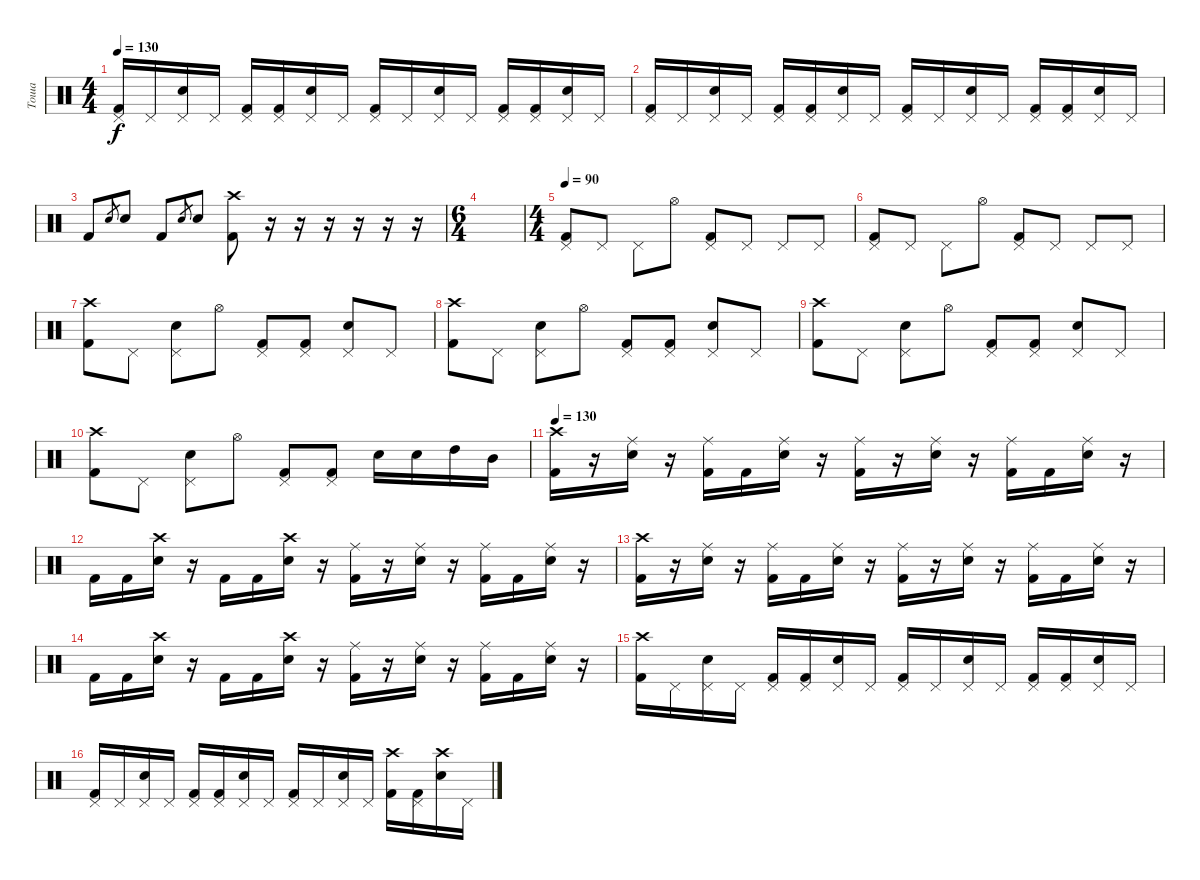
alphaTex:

\track ("Тоша" "Тоша") {solo instrument percussion}
\staff {score}
\articulation defaults
\ts (4 4)
\tempo 130
\clef neutral
\ks c
("Kick (hit) 2" "Pedal Hi-Hat (hit)").16{dy f} "Pedal Hi-Hat (hit)".16 ("Electric Snare (hit)" "Pedal Hi-Hat (hit)").16 "Pedal Hi-Hat (hit)".16 ("Kick (hit) 2" "Pedal Hi-Hat (hit)").16 ("Kick (hit) 2" "Pedal Hi-Hat (hit)").16 ("Electric Snare (hit)" "Pedal Hi-Hat (hit)").16 "Pedal Hi-Hat (hit)".16 ("Kick (hit) 2" "Pedal Hi-Hat (hit)").16 "Pedal Hi-Hat (hit)".16 ("Electric Snare (hit)" "Pedal Hi-Hat (hit)").16 "Pedal Hi-Hat (hit)".16 ("Kick (hit) 2" "Pedal Hi-Hat (hit)").16 ("Kick (hit) 2" "Pedal Hi-Hat (hit)").16 ("Electric Snare (hit)" "Pedal Hi-Hat (hit)").16 "Pedal Hi-Hat (hit)".16 |
("Kick (hit) 2" "Pedal Hi-Hat (hit)").16 "Pedal Hi-Hat (hit)".16 ("Electric Snare (hit)" "Pedal Hi-Hat (hit)").16 "Pedal Hi-Hat (hit)".16 ("Kick (hit) 2" "Pedal Hi-Hat (hit)").16 ("Kick (hit) 2" "Pedal Hi-Hat (hit)").16 ("Electric Snare (hit)" "Pedal Hi-Hat (hit)").16 "Pedal Hi-Hat (hit)".16 ("Kick (hit) 2" "Pedal Hi-Hat (hit)").16 "Pedal Hi-Hat (hit)".16 ("Electric Snare (hit)" "Pedal Hi-Hat (hit)").16 "Pedal Hi-Hat (hit)".16 ("Kick (hit) 2" "Pedal Hi-Hat (hit)").16 ("Kick (hit) 2" "Pedal Hi-Hat (hit)").16 ("Electric Snare (hit)" "Pedal Hi-Hat (hit)").16 "Pedal Hi-Hat (hit)".16 |
"Kick (hit) 2".8 "Electric Snare (hit)".8{gr} "Electric Snare (hit)".8 "Kick (hit) 2".8 "Electric Snare (hit)".8{gr} "Electric Snare (hit)".8 ("Kick (hit) 2" "Crash high (hit)").8 r.16 r.16 r.16 r.16 r.16 r.16 |
\ts (6 4)
|
\ts (4 4)
\tempo 90
("Kick (hit) 2" "Pedal Hi-Hat (hit)").8 "Pedal Hi-Hat (hit)".8 "Pedal Hi-Hat (hit)".8 "Hi-Hat (open)".8 ("Kick (hit) 2" "Pedal Hi-Hat (hit)").8 "Pedal Hi-Hat (hit)".8 "Pedal Hi-Hat (hit)".8 "Pedal Hi-Hat (hit)".8 |
("Kick (hit) 2" "Pedal Hi-Hat (hit)").8 "Pedal Hi-Hat (hit)".8 "Pedal Hi-Hat (hit)".8 "Hi-Hat (open)".8 ("Kick (hit) 2" "Pedal Hi-Hat (hit)").8 "Pedal Hi-Hat (hit)".8 "Pedal Hi-Hat (hit)".8 "Pedal Hi-Hat (hit)".8 |
("Kick (hit) 2" "Crash high (hit)").8 "Pedal Hi-Hat (hit)".8 ("Electric Snare (hit)" "Pedal Hi-Hat (hit)").8 "Hi-Hat (open)".8 ("Kick (hit) 2" "Pedal Hi-Hat (hit)").8 ("Kick (hit) 2" "Pedal Hi-Hat (hit)").8 ("Electric Snare (hit)" "Pedal Hi-Hat (hit)").8 "Pedal Hi-Hat (hit)".8 |
("Kick (hit) 2" "Crash high (hit)").8 "Pedal Hi-Hat (hit)".8 ("Electric Snare (hit)" "Pedal Hi-Hat (hit)").8 "Hi-Hat (open)".8 ("Kick (hit) 2" "Pedal Hi-Hat (hit)").8 ("Kick (hit) 2" "Pedal Hi-Hat (hit)").8 ("Electric Snare (hit)" "Pedal Hi-Hat (hit)").8 "Pedal Hi-Hat (hit)".8 |
("Kick (hit) 2" "Crash high (hit)").8 "Pedal Hi-Hat (hit)".8 ("Electric Snare (hit)" "Pedal Hi-Hat (hit)").8 "Hi-Hat (open)".8 ("Kick (hit) 2" "Pedal Hi-Hat (hit)").8 ("Kick (hit) 2" "Pedal Hi-Hat (hit)").8 ("Electric Snare (hit)" "Pedal Hi-Hat (hit)").8 "Pedal Hi-Hat (hit)".8 |
("Kick (hit) 2" "Crash high (hit)").8 "Pedal Hi-Hat (hit)".8 ("Electric Snare (hit)" "Pedal Hi-Hat (hit)").8 "Hi-Hat (open)".8 ("Kick (hit) 2" "Pedal Hi-Hat (hit)").8 ("Kick (hit) 2" "Pedal Hi-Hat (hit)").8 "Electric Snare (hit)".16 "Electric Snare (hit)".16 "High Tom (hit)".16 "Mid Tom (hit)".16 |
\tempo 130
("Kick (hit) 2" "Crash high (hit)").16 r.16 ("Electric Snare (hit)" "Ride (middle)").16 r.16 ("Kick (hit) 2" "Ride (middle)").16 "Kick (hit) 2".16 ("Electric Snare (hit)" "Ride (middle)").16 r.16 ("Kick (hit) 2" "Ride (middle)").16 r.16 ("Electric Snare (hit)" "Ride (middle)").16 r.16 ("Kick (hit) 2" "Ride (middle)").16 "Kick (hit) 2".16 ("Electric Snare (hit)" "Ride (middle)").16 r.16 |
"Kick (hit) 2".16 "Kick (hit) 2".16 ("Electric Snare (hit)" "Crash high (hit)").16 r.16 "Kick (hit) 2".16 "Kick (hit) 2".16 ("Electric Snare (hit)" "Crash high (hit)").16 r.16 ("Kick (hit) 2" "Ride (middle)").16 r.16 ("Electric Snare (hit)" "Ride (middle)").16 r.16 ("Kick (hit) 2" "Ride (middle)").16 "Kick (hit) 2".16 ("Electric Snare (hit)" "Ride (middle)").16 r.16 |
("Kick (hit) 2" "Crash high (hit)").16 r.16 ("Electric Snare (hit)" "Ride (middle)").16 r.16 ("Kick (hit) 2" "Ride (middle)").16 "Kick (hit) 2".16 ("Electric Snare (hit)" "Ride (middle)").16 r.16 ("Kick (hit) 2" "Ride (middle)").16 r.16 ("Electric Snare (hit)" "Ride (middle)").16 r.16 ("Kick (hit) 2" "Ride (middle)").16 "Kick (hit) 2".16 ("Electric Snare (hit)" "Ride (middle)").16 r.16 |
"Kick (hit) 2".16 "Kick (hit) 2".16 ("Electric Snare (hit)" "Crash high (hit)").16 r.16 "Kick (hit) 2".16 "Kick (hit) 2".16 ("Electric Snare (hit)" "Crash high (hit)").16 r.16 ("Kick (hit) 2" "Ride (middle)").16 r.16 ("Electric Snare (hit)" "Ride (middle)").16 r.16 ("Kick (hit) 2" "Ride (middle)").16 "Kick (hit) 2".16 ("Electric Snare (hit)" "Ride (middle)").16 r.16 |
("Kick (hit) 2" "Crash high (hit)").16 "Pedal Hi-Hat (hit)".16 ("Electric Snare (hit)" "Pedal Hi-Hat (hit)").16 "Pedal Hi-Hat (hit)".16 ("Kick (hit) 2" "Pedal Hi-Hat (hit)").16 ("Kick (hit) 2" "Pedal Hi-Hat (hit)").16 ("Electric Snare (hit)" "Pedal Hi-Hat (hit)").16 "Pedal Hi-Hat (hit)".16 ("Kick (hit) 2" "Pedal Hi-Hat (hit)").16 "Pedal Hi-Hat (hit)".16 ("Electric Snare (hit)" "Pedal Hi-Hat (hit)").16 "Pedal Hi-Hat (hit)".16 ("Kick (hit) 2" "Pedal Hi-Hat (hit)").16 ("Kick (hit) 2" "Pedal Hi-Hat (hit)").16 ("Electric Snare (hit)" "Pedal Hi-Hat (hit)").16 "Pedal Hi-Hat (hit)".16 |
("Kick (hit) 2" "Pedal Hi-Hat (hit)").16 "Pedal Hi-Hat (hit)".16 ("Electric Snare (hit)" "Pedal Hi-Hat (hit)").16 "Pedal Hi-Hat (hit)".16 ("Kick (hit) 2" "Pedal Hi-Hat (hit)").16 ("Kick (hit) 2" "Pedal Hi-Hat (hit)").16 ("Electric Snare (hit)" "Pedal Hi-Hat (hit)").16 "Pedal Hi-Hat (hit)".16 ("Kick (hit) 2" "Pedal Hi-Hat (hit)").16 "Pedal Hi-Hat (hit)".16 ("Electric Snare (hit)" "Pedal Hi-Hat (hit)").16 "Pedal Hi-Hat (hit)".16 ("Kick (hit) 2" "Crash high (hit)").16 ("Kick (hit) 2" "Pedal Hi-Hat (hit)").16 ("Electric Snare (hit)" "Crash high (hit)").16 "Pedal Hi-Hat (hit)".16
